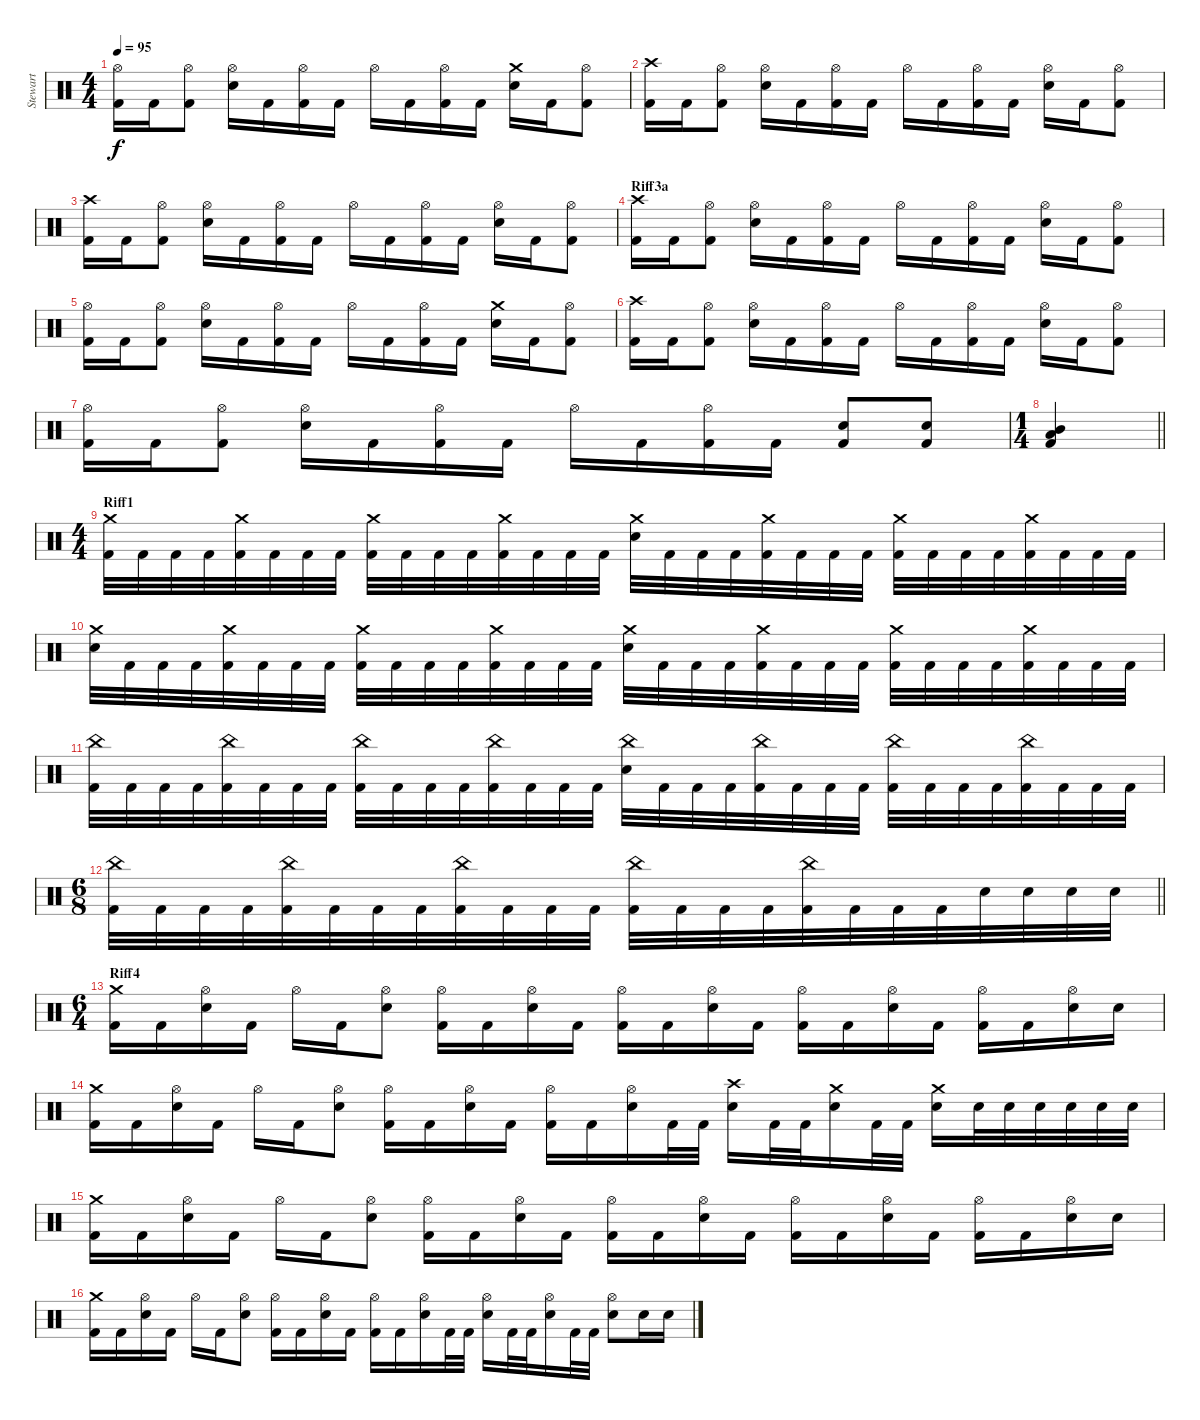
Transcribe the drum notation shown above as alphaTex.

\track ("Stewart" "Stewart") {instrument percussion}
\staff {score}
\articulation defaults
\ts (4 4)
\tempo 95
\clef neutral
\ks c
("Hi-Hat (open)" "Kick (hit) 2").16{dy f} "Kick (hit) 2".16 ("Hi-Hat (open)" "Kick (hit) 2").8 ("Hi-Hat (open)" "Electric Snare (hit)").16 "Kick (hit) 2".16 ("Hi-Hat (open)" "Kick (hit) 2").16 "Kick (hit) 2".16 "Hi-Hat (open)".16 "Kick (hit) 2".16 ("Hi-Hat (open)" "Kick (hit) 2").16 "Kick (hit) 2".16 ("Crash medium (hit)" "Electric Snare (hit)").16 "Kick (hit) 2".16 ("Hi-Hat (open)" "Kick (hit) 2").8 |
("Crash high (hit)" "Kick (hit) 2").16 "Kick (hit) 2".16 ("Hi-Hat (open)" "Kick (hit) 2").8 ("Hi-Hat (open)" "Electric Snare (hit)").16 "Kick (hit) 2".16 ("Hi-Hat (open)" "Kick (hit) 2").16 "Kick (hit) 2".16 "Hi-Hat (open)".16 "Kick (hit) 2".16 ("Hi-Hat (open)" "Kick (hit) 2").16 "Kick (hit) 2".16 ("Hi-Hat (open)" "Electric Snare (hit)").16 "Kick (hit) 2".16 ("Hi-Hat (open)" "Kick (hit) 2").8 |
("Crash high (hit)" "Kick (hit) 2").16 "Kick (hit) 2".16 ("Hi-Hat (open)" "Kick (hit) 2").8 ("Hi-Hat (open)" "Electric Snare (hit)").16 "Kick (hit) 2".16 ("Hi-Hat (open)" "Kick (hit) 2").16 "Kick (hit) 2".16 "Hi-Hat (open)".16 "Kick (hit) 2".16 ("Hi-Hat (open)" "Kick (hit) 2").16 "Kick (hit) 2".16 ("Hi-Hat (open)" "Electric Snare (hit)").16 "Kick (hit) 2".16 ("Hi-Hat (open)" "Kick (hit) 2").8 |
\section ("" "Riff3a")
("Crash high (hit)" "Kick (hit) 2").16 "Kick (hit) 2".16 ("Hi-Hat (open)" "Kick (hit) 2").8 ("Hi-Hat (open)" "Electric Snare (hit)").16 "Kick (hit) 2".16 ("Hi-Hat (open)" "Kick (hit) 2").16 "Kick (hit) 2".16 "Hi-Hat (open)".16 "Kick (hit) 2".16 ("Hi-Hat (open)" "Kick (hit) 2").16 "Kick (hit) 2".16 ("Hi-Hat (open)" "Electric Snare (hit)").16 "Kick (hit) 2".16 ("Hi-Hat (open)" "Kick (hit) 2").8 |
("Hi-Hat (open)" "Kick (hit) 2").16 "Kick (hit) 2".16 ("Hi-Hat (open)" "Kick (hit) 2").8 ("Hi-Hat (open)" "Electric Snare (hit)").16 "Kick (hit) 2".16 ("Hi-Hat (open)" "Kick (hit) 2").16 "Kick (hit) 2".16 "Hi-Hat (open)".16 "Kick (hit) 2".16 ("Hi-Hat (open)" "Kick (hit) 2").16 "Kick (hit) 2".16 ("Crash medium (hit)" "Electric Snare (hit)").16 "Kick (hit) 2".16 ("Hi-Hat (open)" "Kick (hit) 2").8 |
("Crash high (hit)" "Kick (hit) 2").16 "Kick (hit) 2".16 ("Hi-Hat (open)" "Kick (hit) 2").8 ("Hi-Hat (open)" "Electric Snare (hit)").16 "Kick (hit) 2".16 ("Hi-Hat (open)" "Kick (hit) 2").16 "Kick (hit) 2".16 "Hi-Hat (open)".16 "Kick (hit) 2".16 ("Hi-Hat (open)" "Kick (hit) 2").16 "Kick (hit) 2".16 ("Hi-Hat (open)" "Electric Snare (hit)").16 "Kick (hit) 2".16 ("Hi-Hat (open)" "Kick (hit) 2").8 |
("Hi-Hat (open)" "Kick (hit) 2").16 "Kick (hit) 2".16 ("Hi-Hat (open)" "Kick (hit) 2").8 ("Hi-Hat (open)" "Electric Snare (hit)").16 "Kick (hit) 2".16 ("Hi-Hat (open)" "Kick (hit) 2").16 "Kick (hit) 2".16 "Hi-Hat (open)".16 "Kick (hit) 2".16 ("Hi-Hat (open)" "Kick (hit) 2").16 "Kick (hit) 2".16 ("Electric Snare (hit)" "Kick (hit) 2").8 ("Electric Snare (hit)" "Kick (hit) 2").8 |
\ts (1 4)
\barLineRight lightlight
("Mid Tom (hit)" "Low Tom (hit)" "Kick (hit) 2").4 |
\ts (4 4)
\section ("" "Riff1")
("Crash medium (hit)" "Kick (hit) 2").32 "Kick (hit) 2".32 "Kick (hit) 2".32 "Kick (hit) 2".32 ("Crash medium (hit)" "Kick (hit) 2").32 "Kick (hit) 2".32 "Kick (hit) 2".32 "Kick (hit) 2".32 ("Crash medium (hit)" "Kick (hit) 2").32 "Kick (hit) 2".32 "Kick (hit) 2".32 "Kick (hit) 2".32 ("Crash medium (hit)" "Kick (hit) 2").32 "Kick (hit) 2".32 "Kick (hit) 2".32 "Kick (hit) 2".32 ("Crash medium (hit)" "Electric Snare (hit)").32 "Kick (hit) 2".32 "Kick (hit) 2".32 "Kick (hit) 2".32 ("Crash medium (hit)" "Kick (hit) 2").32 "Kick (hit) 2".32 "Kick (hit) 2".32 "Kick (hit) 2".32 ("Crash medium (hit)" "Kick (hit) 2").32 "Kick (hit) 2".32 "Kick (hit) 2".32 "Kick (hit) 2".32 ("Crash medium (hit)" "Kick (hit) 2").32 "Kick (hit) 2".32 "Kick (hit) 2".32 "Kick (hit) 2".32 |
("Crash medium (hit)" "Electric Snare (hit)").32 "Kick (hit) 2".32 "Kick (hit) 2".32 "Kick (hit) 2".32 ("Crash medium (hit)" "Kick (hit) 2").32 "Kick (hit) 2".32 "Kick (hit) 2".32 "Kick (hit) 2".32 ("Crash medium (hit)" "Kick (hit) 2").32 "Kick (hit) 2".32 "Kick (hit) 2".32 "Kick (hit) 2".32 ("Crash medium (hit)" "Kick (hit) 2").32 "Kick (hit) 2".32 "Kick (hit) 2".32 "Kick (hit) 2".32 ("Crash medium (hit)" "Electric Snare (hit)").32 "Kick (hit) 2".32 "Kick (hit) 2".32 "Kick (hit) 2".32 ("Crash medium (hit)" "Kick (hit) 2").32 "Kick (hit) 2".32 "Kick (hit) 2".32 "Kick (hit) 2".32 ("Crash medium (hit)" "Kick (hit) 2").32 "Kick (hit) 2".32 "Kick (hit) 2".32 "Kick (hit) 2".32 ("Crash medium (hit)" "Kick (hit) 2").32 "Kick (hit) 2".32 "Kick (hit) 2".32 "Kick (hit) 2".32 |
("China (hit)" "Kick (hit) 2").32 "Kick (hit) 2".32 "Kick (hit) 2".32 "Kick (hit) 2".32 ("China (hit)" "Kick (hit) 2").32 "Kick (hit) 2".32 "Kick (hit) 2".32 "Kick (hit) 2".32 ("China (hit)" "Kick (hit) 2").32 "Kick (hit) 2".32 "Kick (hit) 2".32 "Kick (hit) 2".32 ("China (hit)" "Kick (hit) 2").32 "Kick (hit) 2".32 "Kick (hit) 2".32 "Kick (hit) 2".32 ("China (hit)" "Electric Snare (hit)").32 "Kick (hit) 2".32 "Kick (hit) 2".32 "Kick (hit) 2".32 ("China (hit)" "Kick (hit) 2").32 "Kick (hit) 2".32 "Kick (hit) 2".32 "Kick (hit) 2".32 ("China (hit)" "Kick (hit) 2").32 "Kick (hit) 2".32 "Kick (hit) 2".32 "Kick (hit) 2".32 ("China (hit)" "Kick (hit) 2").32 "Kick (hit) 2".32 "Kick (hit) 2".32 "Kick (hit) 2".32 |
\ts (6 8)
\barLineRight lightlight
("China (hit)" "Kick (hit) 2").32 "Kick (hit) 2".32 "Kick (hit) 2".32 "Kick (hit) 2".32 ("China (hit)" "Kick (hit) 2").32 "Kick (hit) 2".32 "Kick (hit) 2".32 "Kick (hit) 2".32 ("China (hit)" "Kick (hit) 2").32 "Kick (hit) 2".32 "Kick (hit) 2".32 "Kick (hit) 2".32 ("China (hit)" "Kick (hit) 2").32 "Kick (hit) 2".32 "Kick (hit) 2".32 "Kick (hit) 2".32 ("China (hit)" "Kick (hit) 2").32 "Kick (hit) 2".32 "Kick (hit) 2".32 "Kick (hit) 2".32 "Electric Snare (hit)".32 "Electric Snare (hit)".32 "Electric Snare (hit)".32 "Electric Snare (hit)".32 |
\ts (6 4)
\section ("" "Riff4")
("Crash medium (hit)" "Kick (hit) 2").16 "Kick (hit) 2".16 ("Hi-Hat (open)" "Electric Snare (hit)").16 "Kick (hit) 2".16 "Hi-Hat (open)".16 "Kick (hit) 2".16 ("Hi-Hat (open)" "Electric Snare (hit)").8 ("Hi-Hat (open)" "Kick (hit) 2").16 "Kick (hit) 2".16 ("Hi-Hat (open)" "Electric Snare (hit)").16 "Kick (hit) 2".16 ("Hi-Hat (open)" "Kick (hit) 2").16 "Kick (hit) 2".16 ("Hi-Hat (open)" "Electric Snare (hit)").16 "Kick (hit) 2".16 ("Hi-Hat (open)" "Kick (hit) 2").16 "Kick (hit) 2".16 ("Hi-Hat (open)" "Electric Snare (hit)").16 "Kick (hit) 2".16 ("Hi-Hat (open)" "Kick (hit) 2").16 "Kick (hit) 2".16 ("Hi-Hat (open)" "Electric Snare (hit)").16 "Electric Snare (hit)".16 |
("Crash medium (hit)" "Kick (hit) 2").16 "Kick (hit) 2".16 ("Hi-Hat (open)" "Electric Snare (hit)").16 "Kick (hit) 2".16 "Hi-Hat (open)".16 "Kick (hit) 2".16 ("Hi-Hat (open)" "Electric Snare (hit)").8 ("Hi-Hat (open)" "Kick (hit) 2").16 "Kick (hit) 2".16 ("Hi-Hat (open)" "Electric Snare (hit)").16 "Kick (hit) 2".16 ("Hi-Hat (open)" "Kick (hit) 2").16 "Kick (hit) 2".16 ("Hi-Hat (open)" "Electric Snare (hit)").16 "Kick (hit) 2".32 "Kick (hit) 2".32 ("Crash high (hit)" "Electric Snare (hit)").16 "Kick (hit) 2".32 "Kick (hit) 2".32 ("Crash medium (hit)" "Electric Snare (hit)").16 "Kick (hit) 2".32 "Kick (hit) 2".32 ("Crash medium (hit)" "Electric Snare (hit)").16 "Electric Snare (hit)".32 "Electric Snare (hit)".32 "Electric Snare (hit)".32 "Electric Snare (hit)".32 "Electric Snare (hit)".32 "Electric Snare (hit)".32 |
("Crash medium (hit)" "Kick (hit) 2").16 "Kick (hit) 2".16 ("Hi-Hat (open)" "Electric Snare (hit)").16 "Kick (hit) 2".16 "Hi-Hat (open)".16 "Kick (hit) 2".16 ("Hi-Hat (open)" "Electric Snare (hit)").8 ("Hi-Hat (open)" "Kick (hit) 2").16 "Kick (hit) 2".16 ("Hi-Hat (open)" "Electric Snare (hit)").16 "Kick (hit) 2".16 ("Hi-Hat (open)" "Kick (hit) 2").16 "Kick (hit) 2".16 ("Hi-Hat (open)" "Electric Snare (hit)").16 "Kick (hit) 2".16 ("Hi-Hat (open)" "Kick (hit) 2").16 "Kick (hit) 2".16 ("Hi-Hat (open)" "Electric Snare (hit)").16 "Kick (hit) 2".16 ("Hi-Hat (open)" "Kick (hit) 2").16 "Kick (hit) 2".16 ("Hi-Hat (open)" "Electric Snare (hit)").16 "Electric Snare (hit)".16 |
("Crash medium (hit)" "Kick (hit) 2").16 "Kick (hit) 2".16 ("Hi-Hat (open)" "Electric Snare (hit)").16 "Kick (hit) 2".16 "Hi-Hat (open)".16 "Kick (hit) 2".16 ("Hi-Hat (open)" "Electric Snare (hit)").8 ("Hi-Hat (open)" "Kick (hit) 2").16 "Kick (hit) 2".16 ("Hi-Hat (open)" "Electric Snare (hit)").16 "Kick (hit) 2".16 ("Hi-Hat (open)" "Kick (hit) 2").16 "Kick (hit) 2".16 ("Hi-Hat (open)" "Electric Snare (hit)").16 "Kick (hit) 2".32 "Kick (hit) 2".32 ("Hi-Hat (open)" "Electric Snare (hit)").16 "Kick (hit) 2".32 "Kick (hit) 2".32 ("Hi-Hat (open)" "Electric Snare (hit)").16 "Kick (hit) 2".32 "Kick (hit) 2".32 ("Hi-Hat (open)" "Electric Snare (hit)").8 "Electric Snare (hit)".16 "Electric Snare (hit)".16
